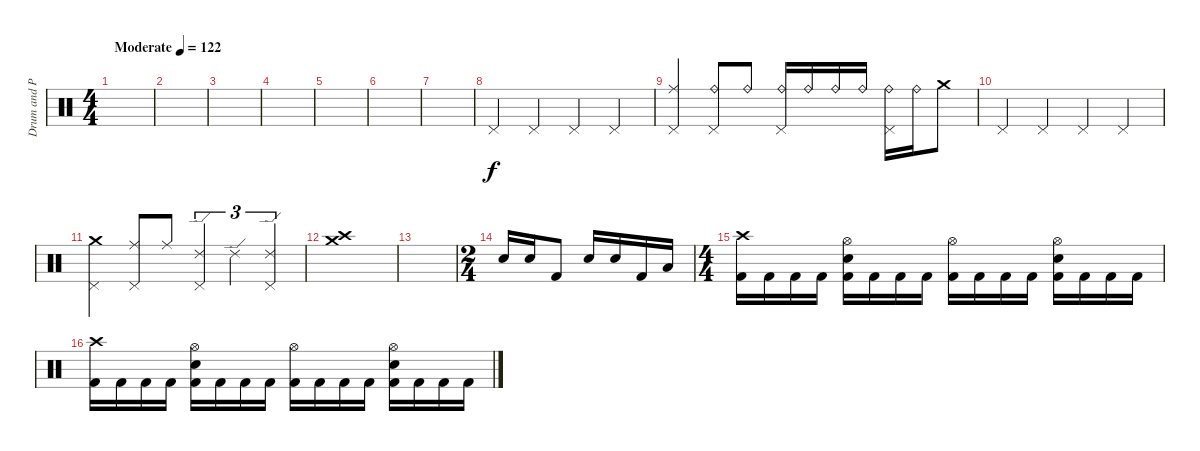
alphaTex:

\track ("Drum and Persscusian" "Drum and P") {instrument percussion}
\staff {score}
\articulation defaults
\ts (4 4)
\tempo (122 "Moderate")
\clef neutral
\ks c
|
|
|
|
|
|
|
"Pedal Hi-Hat (hit)".4 "Pedal Hi-Hat (hit)".4 "Pedal Hi-Hat (hit)".4 "Pedal Hi-Hat (hit)".4 |
("Ride (middle)" "Pedal Hi-Hat (hit)").4 ("Ride (bell)" "Pedal Hi-Hat (hit)").8 "Ride (bell)".8 ("Ride (bell)" "Pedal Hi-Hat (hit)").16 "Ride (bell)".16 "Ride (bell)".16 "Ride (bell)".16 ("Ride (bell)" "Pedal Hi-Hat (hit)").16 "Ride (bell)".16 "Crash medium (hit)".8 |
"Pedal Hi-Hat (hit)".4 "Pedal Hi-Hat (hit)".4 "Pedal Hi-Hat (hit)".4 "Pedal Hi-Hat (hit)".4 |
("Crash medium (hit)" "Pedal Hi-Hat (hit)").4 ("Ride (middle)" "Pedal Hi-Hat (hit)").8 "Ride (middle)".8 ("Ride (edge) 2" "Pedal Hi-Hat (hit)").4{tu (3 2)} "Ride (edge) 2".4{tu (3 2)} ("Ride (edge) 2" "Pedal Hi-Hat (hit)").4{tu (3 2)} |
("Crash high (hit)" "Crash medium (hit)").1 |
|
\ts (2 4)
"Snare (hit) 2".16 "Snare (hit) 2".16 "Kick (hit) 2".8 "Snare (hit) 2".16 "Snare (hit) 2".16 "Kick (hit) 2".16 "Low Floor Tom (hit)".16 |
\ts (4 4)
("Crash high (hit)" "Kick (hit) 2").16 "Kick (hit) 2".16 "Kick (hit) 2".16 "Kick (hit) 2".16 ("Hi-Hat (open)" "Snare (hit) 2" "Kick (hit) 2").16 "Kick (hit) 2".16 "Kick (hit) 2".16 "Kick (hit) 2".16 ("Hi-Hat (open)" "Kick (hit) 2").16 "Kick (hit) 2".16 "Kick (hit) 2".16 "Kick (hit) 2".16 ("Hi-Hat (open)" "Snare (hit) 2" "Kick (hit) 2").16 "Kick (hit) 2".16 "Kick (hit) 2".16 "Kick (hit) 2".16 |
("Crash high (hit)" "Kick (hit) 2").16 "Kick (hit) 2".16 "Kick (hit) 2".16 "Kick (hit) 2".16 ("Hi-Hat (open)" "Snare (hit) 2" "Kick (hit) 2").16 "Kick (hit) 2".16 "Kick (hit) 2".16 "Kick (hit) 2".16 ("Hi-Hat (open)" "Kick (hit) 2").16 "Kick (hit) 2".16 "Kick (hit) 2".16 "Kick (hit) 2".16 ("Hi-Hat (open)" "Snare (hit) 2" "Kick (hit) 2").16 "Kick (hit) 2".16 "Kick (hit) 2".16 "Kick (hit) 2".16
